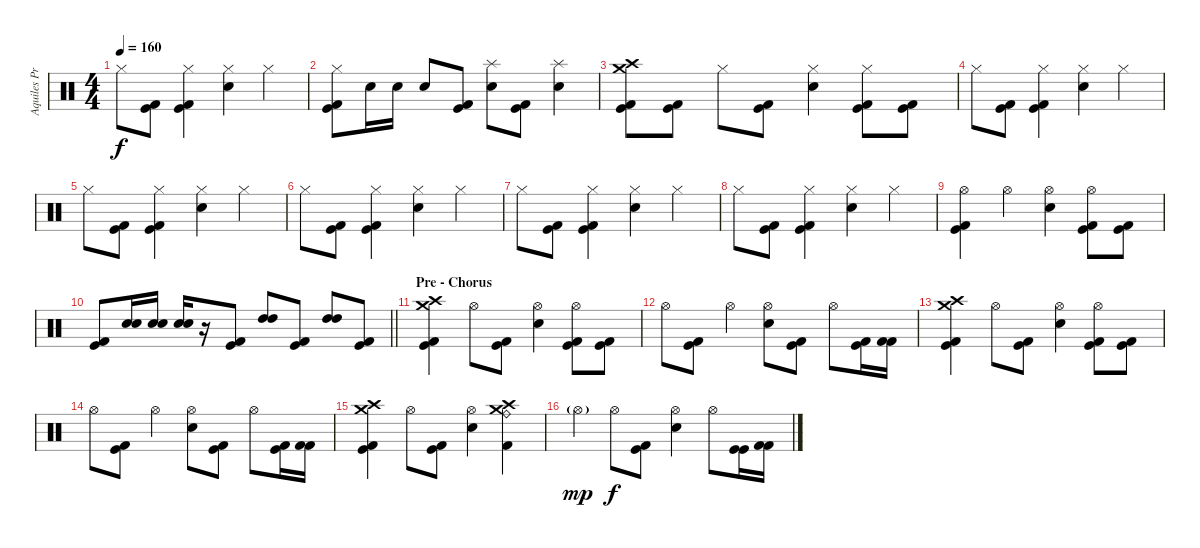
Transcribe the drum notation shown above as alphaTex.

\track ("Aquiles Priester" "Aquiles Pr") {instrument percussion}
\staff {score}
\articulation defaults
\ts (4 4)
\tempo 160
\clef neutral
\ks c "Hi-Hat (closed)".8{dy f}
("Kick (hit)" "Kick (hit) 2").8 ("Hi-Hat (closed)" "Kick (hit)" "Kick (hit) 2").4 ("Hi-Hat (closed)" "Electric Snare (hit)").4 "Hi-Hat (closed)".4 |
("Hi-Hat (closed)" "Kick (hit) 2" "Kick (hit)").8 "Electric Snare (hit)".16 "Electric Snare (hit)".16 "Electric Snare (hit)".8 ("Kick (hit)" "Kick (hit) 2").8 ("Splash (hit)" "Electric Snare (hit)").8 ("Kick (hit)" "Kick (hit) 2").8 ("Splash (hit)" "Electric Snare (hit)").4 |
("Crash medium (hit)" "Crash high (hit)" "Kick (hit)" "Kick (hit) 2").8 ("Kick (hit)" "Kick (hit) 2").8 "Hi-Hat (closed)".8 ("Kick (hit)" "Kick (hit) 2").8 ("Hi-Hat (closed)" "Electric Snare (hit)").4 ("Hi-Hat (closed)" "Kick (hit)" "Kick (hit) 2").8 ("Kick (hit)" "Kick (hit) 2").8 |
"Hi-Hat (closed)".8 ("Kick (hit)" "Kick (hit) 2").8 ("Hi-Hat (closed)" "Kick (hit)" "Kick (hit) 2").4 ("Hi-Hat (closed)" "Electric Snare (hit)").4 "Hi-Hat (closed)".4 |
"Hi-Hat (closed)".8 ("Kick (hit)" "Kick (hit) 2").8 ("Hi-Hat (closed)" "Kick (hit)" "Kick (hit) 2").4 ("Hi-Hat (closed)" "Electric Snare (hit)").4 "Hi-Hat (closed)".4 |
"Hi-Hat (closed)".8 ("Kick (hit)" "Kick (hit) 2").8 ("Hi-Hat (closed)" "Kick (hit)" "Kick (hit) 2").4 ("Hi-Hat (closed)" "Electric Snare (hit)").4 "Hi-Hat (closed)".4 |
"Hi-Hat (closed)".8 ("Kick (hit)" "Kick (hit) 2").8 ("Hi-Hat (closed)" "Kick (hit)" "Kick (hit) 2").4 ("Hi-Hat (closed)" "Electric Snare (hit)").4 "Hi-Hat (closed)".4 |
"Hi-Hat (closed)".8 ("Kick (hit)" "Kick (hit) 2").8 ("Hi-Hat (closed)" "Kick (hit)" "Kick (hit) 2").4 ("Hi-Hat (closed)" "Electric Snare (hit)").4 "Hi-Hat (closed)".4 |
("Hi-Hat (open)" "Kick (hit) 2" "Kick (hit)").4 "Hi-Hat (open)".4 ("Hi-Hat (open)" "Electric Snare (hit)").4 ("Hi-Hat (open)" "Kick (hit) 2" "Kick (hit)").8 ("Kick (hit)" "Kick (hit) 2").8 |
\barLineRight lightlight
("Kick (hit) 2" "Kick (hit)").8 ("Electric Snare (hit)" "Electric Snare (hit)").16 ("Electric Snare (hit)" "Electric Snare (hit)").16 ("Electric Snare (hit)" "Electric Snare (hit)").16 r.16 ("Kick (hit)" "Kick (hit) 2").8 ("High Tom (hit)" "High Tom (hit)").8 ("Kick (hit)" "Kick (hit) 2").8 ("High Tom (hit)" "High Tom (hit)").8 ("Kick (hit)" "Kick (hit) 2").8 |
\section ("" "Pre - Chorus")
("Crash medium (hit)" "Crash high (hit)" "Kick (hit)" "Kick (hit) 2").4 "Hi-Hat (open)".8 ("Kick (hit)" "Kick (hit) 2").8 ("Hi-Hat (open)" "Electric Snare (hit)").4 ("Hi-Hat (open)" "Kick (hit)" "Kick (hit) 2").8 ("Kick (hit)" "Kick (hit) 2").8 |
"Hi-Hat (open)".8 ("Kick (hit)" "Kick (hit) 2").8 "Hi-Hat (open)".4 ("Hi-Hat (open)" "Electric Snare (hit)").8 ("Kick (hit)" "Kick (hit) 2").8 "Hi-Hat (open)".8 ("Kick (hit)" "Kick (hit) 2").16 ("Kick (hit) 2" "Kick (hit) 2").16 |
("Crash medium (hit)" "Crash high (hit)" "Kick (hit)" "Kick (hit) 2").4 "Hi-Hat (open)".8 ("Kick (hit)" "Kick (hit) 2").8 ("Hi-Hat (open)" "Electric Snare (hit)").4 ("Hi-Hat (open)" "Kick (hit)" "Kick (hit) 2").8 ("Kick (hit)" "Kick (hit) 2").8 |
"Hi-Hat (open)".8 ("Kick (hit)" "Kick (hit) 2").8 "Hi-Hat (open)".4 ("Hi-Hat (open)" "Electric Snare (hit)").8 ("Kick (hit)" "Kick (hit) 2").8 "Hi-Hat (open)".8 ("Kick (hit)" "Kick (hit) 2").16 ("Kick (hit) 2" "Kick (hit) 2").16 |
("Crash medium (hit)" "Crash high (hit)" "Kick (hit)" "Kick (hit) 2").4 "Hi-Hat (open)".8 ("Kick (hit)" "Kick (hit) 2").8 ("Hi-Hat (open)" "Electric Snare (hit)").4 ("Crash medium (hit)" "Crash high (hit)" "Ride (bell)" "Kick (hit) 2").4 |
"Hi-Hat (open)"{g}.4{dy mp} "Hi-Hat (open)".8{dy f} ("Kick (hit)" "Kick (hit) 2").8 ("Hi-Hat (open)" "Electric Snare (hit)").4 "Hi-Hat (open)".8 ("Kick (hit)" "Kick (hit)").16 ("Kick (hit) 2" "Kick (hit) 2").16
